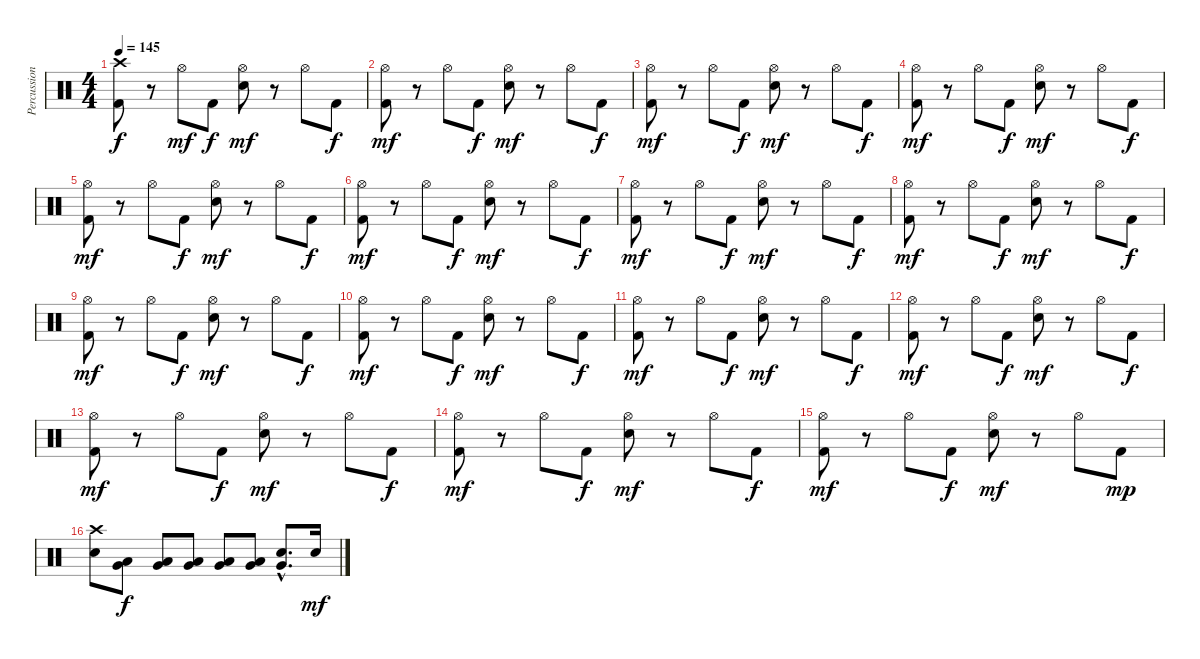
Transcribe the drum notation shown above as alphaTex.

\track ("Percussions" "Percussion") {instrument percussion}
\staff {score}
\articulation defaults
\ts (4 4)
\tempo 145
\clef neutral
\ks c
("Crash high (hit)" "Kick (hit) 2").8{dy f} r.8 "Hi-Hat (open)".8{dy mf} "Kick (hit) 2".8{dy f} ("Hi-Hat (open)" "Snare (hit) 2").8{dy mf} r.8 "Hi-Hat (open)".8 "Kick (hit) 2".8{dy f} |
("Hi-Hat (open)" "Kick (hit) 2").8{dy mf} r.8 "Hi-Hat (open)".8 "Kick (hit) 2".8{dy f} ("Hi-Hat (open)" "Snare (hit) 2").8{dy mf} r.8 "Hi-Hat (open)".8 "Kick (hit) 2".8{dy f} |
("Hi-Hat (open)" "Kick (hit) 2").8{dy mf} r.8 "Hi-Hat (open)".8 "Kick (hit) 2".8{dy f} ("Hi-Hat (open)" "Snare (hit) 2").8{dy mf} r.8 "Hi-Hat (open)".8 "Kick (hit) 2".8{dy f} |
("Hi-Hat (open)" "Kick (hit) 2").8{dy mf} r.8 "Hi-Hat (open)".8 "Kick (hit) 2".8{dy f} ("Hi-Hat (open)" "Snare (hit) 2").8{dy mf} r.8 "Hi-Hat (open)".8 "Kick (hit) 2".8{dy f} |
("Hi-Hat (open)" "Kick (hit) 2").8{dy mf} r.8 "Hi-Hat (open)".8 "Kick (hit) 2".8{dy f} ("Hi-Hat (open)" "Snare (hit) 2").8{dy mf} r.8 "Hi-Hat (open)".8 "Kick (hit) 2".8{dy f} |
("Hi-Hat (open)" "Kick (hit) 2").8{dy mf} r.8 "Hi-Hat (open)".8 "Kick (hit) 2".8{dy f} ("Hi-Hat (open)" "Snare (hit) 2").8{dy mf} r.8 "Hi-Hat (open)".8 "Kick (hit) 2".8{dy f} |
("Hi-Hat (open)" "Kick (hit) 2").8{dy mf} r.8 "Hi-Hat (open)".8 "Kick (hit) 2".8{dy f} ("Hi-Hat (open)" "Snare (hit) 2").8{dy mf} r.8 "Hi-Hat (open)".8 "Kick (hit) 2".8{dy f} |
("Hi-Hat (open)" "Kick (hit) 2").8{dy mf} r.8 "Hi-Hat (open)".8 "Kick (hit) 2".8{dy f} ("Hi-Hat (open)" "Snare (hit) 2").8{dy mf} r.8 "Hi-Hat (open)".8 "Kick (hit) 2".8{dy f} |
("Hi-Hat (open)" "Kick (hit) 2").8{dy mf} r.8 "Hi-Hat (open)".8 "Kick (hit) 2".8{dy f} ("Hi-Hat (open)" "Snare (hit) 2").8{dy mf} r.8 "Hi-Hat (open)".8 "Kick (hit) 2".8{dy f} |
("Hi-Hat (open)" "Kick (hit) 2").8{dy mf} r.8 "Hi-Hat (open)".8 "Kick (hit) 2".8{dy f} ("Hi-Hat (open)" "Snare (hit) 2").8{dy mf} r.8 "Hi-Hat (open)".8 "Kick (hit) 2".8{dy f} |
("Hi-Hat (open)" "Kick (hit) 2").8{dy mf} r.8 "Hi-Hat (open)".8 "Kick (hit) 2".8{dy f} ("Hi-Hat (open)" "Snare (hit) 2").8{dy mf} r.8 "Hi-Hat (open)".8 "Kick (hit) 2".8{dy f} |
("Hi-Hat (open)" "Kick (hit) 2").8{dy mf} r.8 "Hi-Hat (open)".8 "Kick (hit) 2".8{dy f} ("Hi-Hat (open)" "Snare (hit) 2").8{dy mf} r.8 "Hi-Hat (open)".8 "Kick (hit) 2".8{dy f} |
("Hi-Hat (open)" "Kick (hit) 2").8{dy mf} r.8 "Hi-Hat (open)".8 "Kick (hit) 2".8{dy f} ("Hi-Hat (open)" "Snare (hit) 2").8{dy mf} r.8 "Hi-Hat (open)".8 "Kick (hit) 2".8{dy f} |
("Hi-Hat (open)" "Kick (hit) 2").8{dy mf} r.8 "Hi-Hat (open)".8 "Kick (hit) 2".8{dy f} ("Hi-Hat (open)" "Snare (hit) 2").8{dy mf} r.8 "Hi-Hat (open)".8 "Kick (hit) 2".8{dy f} |
("Hi-Hat (open)" "Kick (hit) 2").8{dy mf} r.8 "Hi-Hat (open)".8 "Kick (hit) 2".8{dy f} ("Hi-Hat (open)" "Snare (hit) 2").8{dy mf} r.8 "Hi-Hat (open)".8 "Kick (hit) 2".8{dy mp} |
("Crash high (hit)" "Snare (hit) 2").8 ("Very Low Tom (hit)" "Low Tom (hit)").8{dy f} ("Very Low Tom (hit)" "Low Tom (hit)").8 ("Very Low Tom (hit)" "Low Tom (hit)").8 ("Very Low Tom (hit)" "Low Tom (hit)").8 ("Very Low Tom (hit)" "Low Tom (hit)").8 ("Very Low Tom (hit)"{hac} "Snare (hit) 2"{hac}).8{d} "Snare (hit) 2".16{dy mf}
